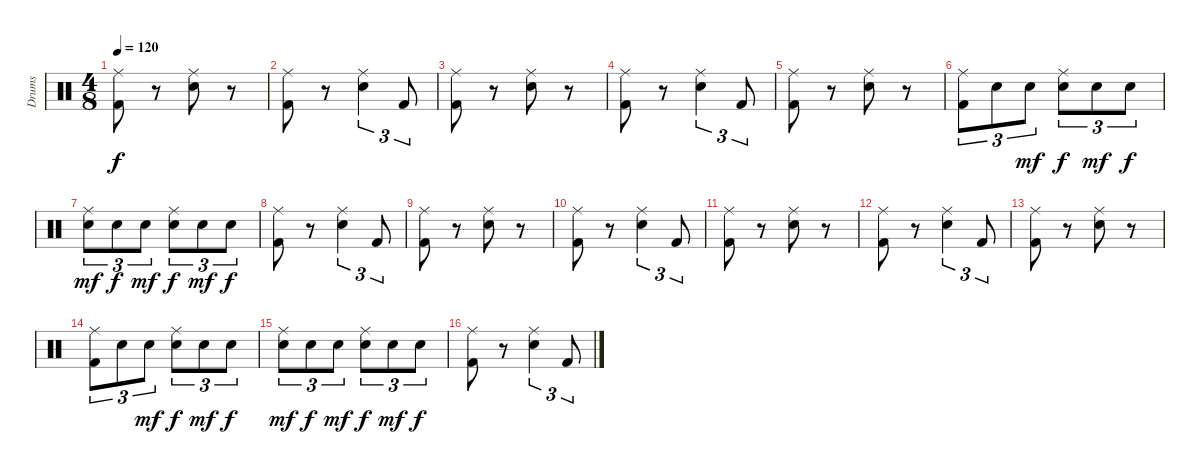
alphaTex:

\track ("Drums" "Drums") {instrument percussion}
\staff {score}
\articulation defaults
\ts (4 8)
\tempo 120
\clef neutral
\ks c
("Ride (middle)" "Kick (hit) 2").8{dy f} r.8 ("Ride (middle)" "Electric Snare (hit)").8 r.8 |
("Ride (middle)" "Kick (hit) 2").8 r.8 ("Ride (middle)" "Electric Snare (hit)").4{tu (3 2)} "Kick (hit) 2".8{tu (3 2)} |
("Ride (middle)" "Kick (hit) 2").8 r.8 ("Ride (middle)" "Electric Snare (hit)").8 r.8 |
("Ride (middle)" "Kick (hit) 2").8 r.8 ("Ride (middle)" "Electric Snare (hit)").4{tu (3 2)} "Kick (hit) 2".8{tu (3 2)} |
("Ride (middle)" "Kick (hit) 2").8 r.8 ("Ride (middle)" "Electric Snare (hit)").8 r.8 |
("Ride (middle)" "Kick (hit) 2").8{tu (3 2) volume 15} "Electric Snare (hit)".8{tu (3 2)} "Electric Snare (hit)".8{tu (3 2) dy mf} ("Ride (middle)" "Electric Snare (hit)").8{tu (3 2) dy f} "Electric Snare (hit)".8{tu (3 2) dy mf} "Electric Snare (hit)".8{tu (3 2) dy f} |
("Ride (middle)" "Electric Snare (hit)").8{tu (3 2) dy mf volume 14} "Electric Snare (hit)".8{tu (3 2) dy f} "Electric Snare (hit)".8{tu (3 2) dy mf} ("Ride (middle)" "Electric Snare (hit)").8{tu (3 2) dy f} "Electric Snare (hit)".8{tu (3 2) dy mf} "Electric Snare (hit)".8{tu (3 2) dy f} |
("Ride (middle)" "Kick (hit) 2").8{volume 12} r.8 ("Ride (middle)" "Electric Snare (hit)").4{tu (3 2)} "Kick (hit) 2".8{tu (3 2)} |
("Ride (middle)" "Kick (hit) 2").8{volume 11} r.8 ("Ride (middle)" "Electric Snare (hit)").8 r.8 |
("Ride (middle)" "Kick (hit) 2").8{volume 10} r.8 ("Ride (middle)" "Electric Snare (hit)").4{tu (3 2)} "Kick (hit) 2".8{tu (3 2)} |
("Ride (middle)" "Kick (hit) 2").8{volume 9} r.8 ("Ride (middle)" "Electric Snare (hit)").8 r.8 |
("Ride (middle)" "Kick (hit) 2").8{volume 8} r.8 ("Ride (middle)" "Electric Snare (hit)").4{tu (3 2)} "Kick (hit) 2".8{tu (3 2)} |
("Ride (middle)" "Kick (hit) 2").8{volume 6} r.8 ("Ride (middle)" "Electric Snare (hit)").8 r.8 |
("Ride (middle)" "Kick (hit) 2").8{tu (3 2) volume 5} "Electric Snare (hit)".8{tu (3 2)} "Electric Snare (hit)".8{tu (3 2) dy mf} ("Ride (middle)" "Electric Snare (hit)").8{tu (3 2) dy f} "Electric Snare (hit)".8{tu (3 2) dy mf} "Electric Snare (hit)".8{tu (3 2) dy f} |
("Ride (middle)" "Electric Snare (hit)").8{tu (3 2) dy mf volume 4} "Electric Snare (hit)".8{tu (3 2) dy f} "Electric Snare (hit)".8{tu (3 2) dy mf} ("Ride (middle)" "Electric Snare (hit)").8{tu (3 2) dy f} "Electric Snare (hit)".8{tu (3 2) dy mf} "Electric Snare (hit)".8{tu (3 2) dy f} |
("Ride (middle)" "Kick (hit) 2").8{volume 2} r.8 ("Ride (middle)" "Electric Snare (hit)").4{tu (3 2)} "Kick (hit) 2".8{tu (3 2)}
